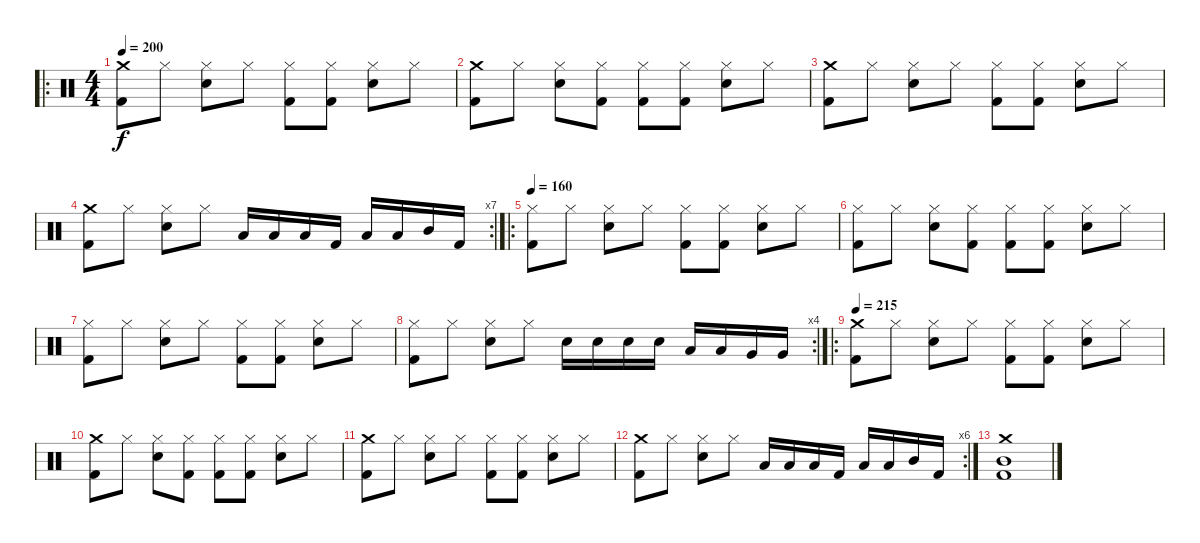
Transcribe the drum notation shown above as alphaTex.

\track "" {solo instrument percussion}
\staff {score}
\articulation defaults
\ro
\ts (4 4)
\tempo 200
\clef neutral
\ks c
("Kick (hit) 2" "Crash medium (hit)").8{dy f} "Hi-Hat (closed)".8 ("Electric Snare (hit)" "Hi-Hat (closed)").8 "Hi-Hat (closed)".8 ("Kick (hit) 2" "Hi-Hat (closed)").8 ("Kick (hit) 2" "Hi-Hat (closed)").8 ("Electric Snare (hit)" "Hi-Hat (closed)").8 "Hi-Hat (closed)".8 |
("Kick (hit) 2" "Crash medium (hit)").8 "Hi-Hat (closed)".8 ("Electric Snare (hit)" "Hi-Hat (closed)").8 ("Kick (hit) 2" "Hi-Hat (closed)").8 ("Kick (hit) 2" "Hi-Hat (closed)").8 ("Kick (hit) 2" "Hi-Hat (closed)").8 ("Electric Snare (hit)" "Hi-Hat (closed)").8 "Hi-Hat (closed)".8 |
("Kick (hit) 2" "Crash medium (hit)").8 "Hi-Hat (closed)".8 ("Electric Snare (hit)" "Hi-Hat (closed)").8 "Hi-Hat (closed)".8 ("Kick (hit) 2" "Hi-Hat (closed)").8 ("Kick (hit) 2" "Hi-Hat (closed)").8 ("Electric Snare (hit)" "Hi-Hat (closed)").8 "Hi-Hat (closed)".8 |
\rc 7
("Kick (hit) 2" "Crash medium (hit)").8 "Hi-Hat (closed)".8 ("Electric Snare (hit)" "Hi-Hat (closed)").8 "Hi-Hat (closed)".8 "Low Floor Tom (hit)".16 "Low Floor Tom (hit)".16 "Low Floor Tom (hit)".16 "Kick (hit) 2".16 "Low Tom (hit)".16 "Low Tom (hit)".16 "Mid Tom (hit)".16 "Kick (hit) 2".16 |
\ro
\tempo 160
("Kick (hit) 2" "Hi-Hat (closed)").8 "Hi-Hat (closed)".8 ("Electric Snare (hit)" "Hi-Hat (closed)").8 "Hi-Hat (closed)".8 ("Kick (hit) 2" "Hi-Hat (closed)").8 ("Kick (hit) 2" "Hi-Hat (closed)").8 ("Electric Snare (hit)" "Hi-Hat (closed)").8 "Hi-Hat (closed)".8 |
("Kick (hit) 2" "Hi-Hat (closed)").8 "Hi-Hat (closed)".8 ("Electric Snare (hit)" "Hi-Hat (closed)").8 ("Kick (hit) 2" "Hi-Hat (closed)").8 ("Kick (hit) 2" "Hi-Hat (closed)").8 ("Kick (hit) 2" "Hi-Hat (closed)").8 ("Electric Snare (hit)" "Hi-Hat (closed)").8 "Hi-Hat (closed)".8 |
("Kick (hit) 2" "Hi-Hat (closed)").8 "Hi-Hat (closed)".8 ("Electric Snare (hit)" "Hi-Hat (closed)").8 "Hi-Hat (closed)".8 ("Kick (hit) 2" "Hi-Hat (closed)").8 ("Kick (hit) 2" "Hi-Hat (closed)").8 ("Electric Snare (hit)" "Hi-Hat (closed)").8 "Hi-Hat (closed)".8 |
\rc 4
("Kick (hit) 2" "Hi-Hat (closed)").8 "Hi-Hat (closed)".8 ("Electric Snare (hit)" "Hi-Hat (closed)").8 "Hi-Hat (closed)".8 "Electric Snare (hit)".16 "Electric Snare (hit)".16 "Electric Snare (hit)".16 "Electric Snare (hit)".16 "Low Floor Tom (hit)".16 "Low Floor Tom (hit)".16 "Very Low Tom (hit)".16 "Very Low Tom (hit)".16 |
\ro
\tempo 215
("Kick (hit) 2" "Crash medium (hit)").8 "Hi-Hat (closed)".8 ("Electric Snare (hit)" "Hi-Hat (closed)").8 "Hi-Hat (closed)".8 ("Kick (hit) 2" "Hi-Hat (closed)").8 ("Kick (hit) 2" "Hi-Hat (closed)").8 ("Electric Snare (hit)" "Hi-Hat (closed)").8 "Hi-Hat (closed)".8 |
("Kick (hit) 2" "Crash medium (hit)").8 "Hi-Hat (closed)".8 ("Electric Snare (hit)" "Hi-Hat (closed)").8 ("Kick (hit) 2" "Hi-Hat (closed)").8 ("Kick (hit) 2" "Hi-Hat (closed)").8 ("Kick (hit) 2" "Hi-Hat (closed)").8 ("Electric Snare (hit)" "Hi-Hat (closed)").8 "Hi-Hat (closed)".8 |
("Kick (hit) 2" "Crash medium (hit)").8 "Hi-Hat (closed)".8 ("Electric Snare (hit)" "Hi-Hat (closed)").8 "Hi-Hat (closed)".8 ("Kick (hit) 2" "Hi-Hat (closed)").8 ("Kick (hit) 2" "Hi-Hat (closed)").8 ("Electric Snare (hit)" "Hi-Hat (closed)").8 "Hi-Hat (closed)".8 |
\rc 6
("Kick (hit) 2" "Crash medium (hit)").8 "Hi-Hat (closed)".8 ("Electric Snare (hit)" "Hi-Hat (closed)").8 "Hi-Hat (closed)".8 "Low Floor Tom (hit)".16 "Low Floor Tom (hit)".16 "Low Floor Tom (hit)".16 "Kick (hit) 2".16 "Low Tom (hit)".16 "Low Tom (hit)".16 "Mid Tom (hit)".16 "Kick (hit) 2".16 |
("Crash medium (hit)" "Kick (hit) 2" "Mid Tom (hit)").1
